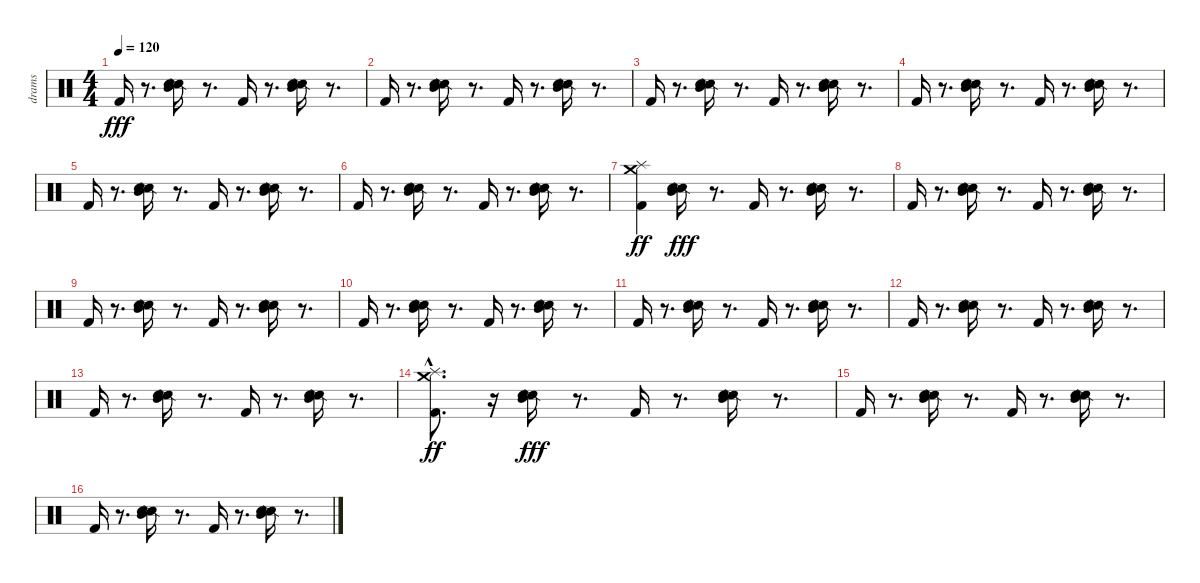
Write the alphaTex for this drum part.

\track ("drams" "drams") {instrument percussion}
\staff {score}
\articulation defaults
\ts (4 4)
\tempo 120
\clef neutral
\ks c "Kick (hit) 2".16{dy fff}
r.8{d} ("Snare (side stick) 2" "Snare (hit) 2" "Mid Tom (hit)").16 r.8{d} "Kick (hit) 2".16 r.8{d} ("Snare (side stick) 2" "Snare (hit) 2" "Mid Tom (hit)").16 r.8{d} |
"Kick (hit) 2".16 r.8{d} ("Snare (side stick) 2" "Snare (hit) 2" "Mid Tom (hit)").16 r.8{d} "Kick (hit) 2".16 r.8{d} ("Snare (side stick) 2" "Snare (hit) 2" "Mid Tom (hit)").16 r.8{d} |
"Kick (hit) 2".16 r.8{d} ("Snare (side stick) 2" "Snare (hit) 2" "Mid Tom (hit)").16 r.8{d} "Kick (hit) 2".16 r.8{d} ("Snare (side stick) 2" "Snare (hit) 2" "Mid Tom (hit)").16 r.8{d} |
"Kick (hit) 2".16 r.8{d} ("Snare (side stick) 2" "Snare (hit) 2" "Mid Tom (hit)").16 r.8{d} "Kick (hit) 2".16 r.8{d} ("Snare (side stick) 2" "Snare (hit) 2" "Mid Tom (hit)").16 r.8{d} |
"Kick (hit) 2".16 r.8{d} ("Snare (side stick) 2" "Snare (hit) 2" "Mid Tom (hit)").16 r.8{d} "Kick (hit) 2".16 r.8{d} ("Snare (side stick) 2" "Snare (hit) 2" "Mid Tom (hit)").16 r.8{d} |
"Kick (hit) 2".16 r.8{d} ("Snare (side stick) 2" "Snare (hit) 2" "Mid Tom (hit)").16 r.8{d} "Kick (hit) 2".16 r.8{d} ("Snare (side stick) 2" "Snare (hit) 2" "Mid Tom (hit)").16 r.8{d} |
("Kick (hit) 2" "Splash (hit)" "Crash medium (hit)").4{dy ff} ("Snare (side stick) 2" "Snare (hit) 2" "Mid Tom (hit)").16{dy fff} r.8{d} "Kick (hit) 2".16 r.8{d} ("Snare (side stick) 2" "Snare (hit) 2" "Mid Tom (hit)").16 r.8{d} |
"Kick (hit) 2".16 r.8{d} ("Snare (side stick) 2" "Snare (hit) 2" "Mid Tom (hit)").16 r.8{d} "Kick (hit) 2".16 r.8{d} ("Snare (side stick) 2" "Snare (hit) 2" "Mid Tom (hit)").16 r.8{d} |
"Kick (hit) 2".16 r.8{d} ("Snare (side stick) 2" "Snare (hit) 2" "Mid Tom (hit)").16 r.8{d} "Kick (hit) 2".16 r.8{d} ("Snare (side stick) 2" "Snare (hit) 2" "Mid Tom (hit)").16 r.8{d} |
"Kick (hit) 2".16 r.8{d} ("Snare (side stick) 2" "Snare (hit) 2" "Mid Tom (hit)").16 r.8{d} "Kick (hit) 2".16 r.8{d} ("Snare (side stick) 2" "Snare (hit) 2" "Mid Tom (hit)").16 r.8{d} |
"Kick (hit) 2".16 r.8{d} ("Snare (side stick) 2" "Snare (hit) 2" "Mid Tom (hit)").16 r.8{d} "Kick (hit) 2".16 r.8{d} ("Snare (side stick) 2" "Snare (hit) 2" "Mid Tom (hit)").16 r.8{d} |
"Kick (hit) 2".16 r.8{d} ("Snare (side stick) 2" "Snare (hit) 2" "Mid Tom (hit)").16 r.8{d} "Kick (hit) 2".16 r.8{d} ("Snare (side stick) 2" "Snare (hit) 2" "Mid Tom (hit)").16 r.8{d} |
"Kick (hit) 2".16 r.8{d} ("Snare (side stick) 2" "Snare (hit) 2" "Mid Tom (hit)").16 r.8{d} "Kick (hit) 2".16 r.8{d} ("Snare (side stick) 2" "Snare (hit) 2" "Mid Tom (hit)").16 r.8{d} |
("Kick (hit) 2" "Splash (hit)"{hac} "Crash medium (hit)"{hac}).8{d dy ff} r.16 ("Snare (side stick) 2" "Snare (hit) 2" "Mid Tom (hit)").16{dy fff} r.8{d} "Kick (hit) 2".16 r.8{d} ("Snare (side stick) 2" "Snare (hit) 2" "Mid Tom (hit)").16 r.8{d} |
"Kick (hit) 2".16 r.8{d} ("Snare (side stick) 2" "Snare (hit) 2" "Mid Tom (hit)").16 r.8{d} "Kick (hit) 2".16 r.8{d} ("Snare (side stick) 2" "Snare (hit) 2" "Mid Tom (hit)").16 r.8{d} |
"Kick (hit) 2".16 r.8{d} ("Snare (side stick) 2" "Snare (hit) 2" "Mid Tom (hit)").16 r.8{d} "Kick (hit) 2".16 r.8{d} ("Snare (side stick) 2" "Snare (hit) 2" "Mid Tom (hit)").16 r.8{d}
